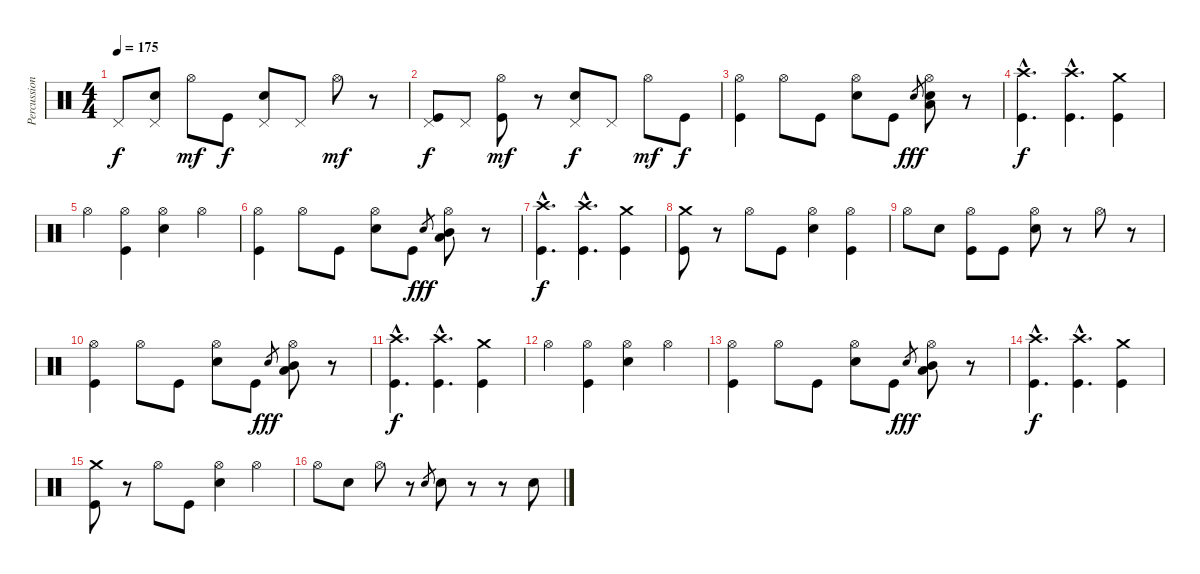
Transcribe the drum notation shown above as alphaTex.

\track ("Percussions" "Percussion") {instrument percussion}
\staff {score}
\articulation defaults
\ts (4 4)
\tempo 175
\clef neutral
\ks c "Pedal Hi-Hat (hit)".8{dy f}
("Pedal Hi-Hat (hit)" "Snare (hit) 2").8 "Hi-Hat (open)".8{dy mf} "Kick (hit)".8{dy f} ("Pedal Hi-Hat (hit)" "Snare (hit) 2").8 "Pedal Hi-Hat (hit)".8 "Hi-Hat (open)".8{dy mf} r.8 |
("Pedal Hi-Hat (hit)" "Kick (hit)").8{dy f} "Pedal Hi-Hat (hit)".8 ("Hi-Hat (open)" "Kick (hit)").8{dy mf} r.8 ("Pedal Hi-Hat (hit)" "Snare (hit) 2").8{dy f} "Pedal Hi-Hat (hit)".8 "Hi-Hat (open)".8{dy mf} "Kick (hit)".8{dy f} |
("Hi-Hat (open)" "Kick (hit)").4 "Hi-Hat (open)".8 "Kick (hit)".8 ("Hi-Hat (open)" "Snare (hit) 2").8 "Kick (hit)".8 "Snare (hit) 2".8{gr dy fff} ("Hi-Hat (open)" "Low Tom (hit)" "Snare (hit) 2").8 r.8 |
("Crash high (hit)"{hac} "Kick (hit)"{hac}).4{d dy f} ("Crash high (hit)"{hac} "Kick (hit)"{hac}).4{d} ("Crash medium (hit)" "Kick (hit)").4 |
"Hi-Hat (open)".4 ("Hi-Hat (open)" "Kick (hit)").4 ("Hi-Hat (open)" "Snare (hit) 2").4 "Hi-Hat (open)".4 |
("Hi-Hat (open)" "Kick (hit)").4 "Hi-Hat (open)".8 "Kick (hit)".8 ("Hi-Hat (open)" "Snare (hit) 2").8 "Kick (hit)".8 "Snare (hit) 2".8{gr dy fff} ("Hi-Hat (open)" "Low Tom (hit)" "Mid Tom (hit)").8 r.8 |
("Crash high (hit)"{hac} "Kick (hit)"{hac}).4{d dy f} ("Crash high (hit)"{hac} "Kick (hit)"{hac}).4{d} ("Crash medium (hit)" "Kick (hit)").4 |
("Crash medium (hit)" "Kick (hit)").8 r.8 "Hi-Hat (open)".8 "Kick (hit)".8 ("Hi-Hat (open)" "Snare (hit) 2").4 ("Hi-Hat (open)" "Kick (hit)").4 |
"Hi-Hat (open)".8 "Snare (hit) 2".8 ("Hi-Hat (open)" "Kick (hit)").8 "Kick (hit)".8 ("Hi-Hat (open)" "Snare (hit) 2").8 r.8 "Hi-Hat (open)".8 r.8 |
("Hi-Hat (open)" "Kick (hit)").4 "Hi-Hat (open)".8 "Kick (hit)".8 ("Hi-Hat (open)" "Snare (hit) 2").8 "Kick (hit)".8 "Snare (hit) 2".8{gr dy fff} ("Hi-Hat (open)" "Low Tom (hit)" "Mid Tom (hit)").8 r.8 |
("Crash high (hit)"{hac} "Kick (hit)"{hac}).4{d dy f} ("Crash high (hit)"{hac} "Kick (hit)"{hac}).4{d} ("Crash medium (hit)" "Kick (hit)").4 |
"Hi-Hat (open)".4 ("Hi-Hat (open)" "Kick (hit)").4 ("Hi-Hat (open)" "Snare (hit) 2").4 "Hi-Hat (open)".4 |
("Hi-Hat (open)" "Kick (hit)").4 "Hi-Hat (open)".8 "Kick (hit)".8 ("Hi-Hat (open)" "Snare (hit) 2").8 "Kick (hit)".8 "Snare (hit) 2".8{gr dy fff} ("Hi-Hat (open)" "Low Tom (hit)" "Mid Tom (hit)").8 r.8 |
("Crash high (hit)"{hac} "Kick (hit)"{hac}).4{d dy f} ("Crash high (hit)"{hac} "Kick (hit)"{hac}).4{d} ("Crash medium (hit)" "Kick (hit)").4 |
("Crash medium (hit)" "Kick (hit)").8 r.8 "Hi-Hat (open)".8 "Kick (hit)".8 ("Hi-Hat (open)" "Snare (hit) 2").4 "Hi-Hat (open)".4 |
"Hi-Hat (open)".8 "Snare (hit) 2".8 "Hi-Hat (open)".8 r.8 "Snare (hit) 2".8{gr} "Snare (hit) 2".8 r.8 r.8 "Snare (hit) 2".8
